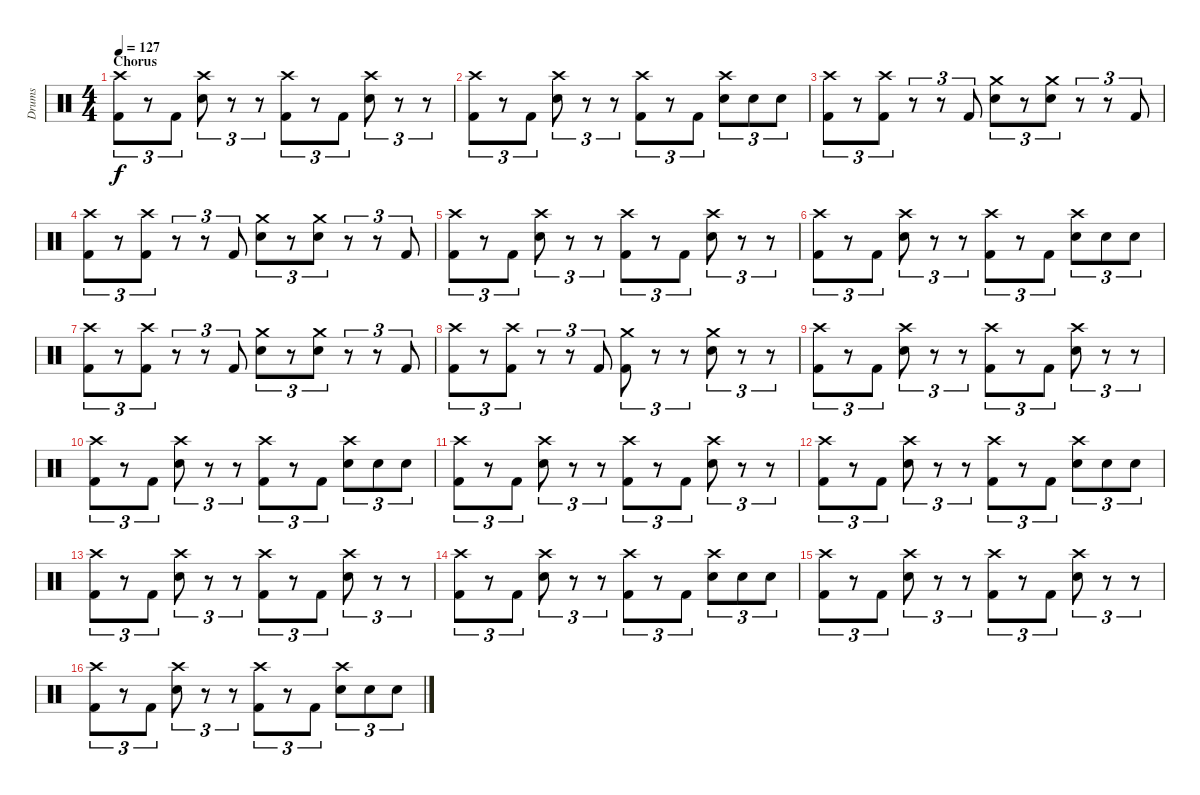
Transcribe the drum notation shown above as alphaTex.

\track ("Drums" "Drums") {instrument percussion}
\staff {score}
\articulation defaults
\ts (4 4)
\section ("" "Chorus")
\tempo 127
\clef neutral
\ks c
("Crash high (hit)" "Kick (hit) 2").8{tu (3 2) dy f volume 13} r.8{tu (3 2)} "Kick (hit) 2".8{tu (3 2)} ("Crash high (hit)" "Electric Snare (hit)").8{tu (3 2)} r.8{tu (3 2)} r.8{tu (3 2)} ("Crash high (hit)" "Kick (hit) 2").8{tu (3 2)} r.8{tu (3 2)} "Kick (hit) 2".8{tu (3 2)} ("Crash high (hit)" "Electric Snare (hit)").8{tu (3 2)} r.8{tu (3 2)} r.8{tu (3 2)} |
("Crash high (hit)" "Kick (hit) 2").8{tu (3 2)} r.8{tu (3 2)} "Kick (hit) 2".8{tu (3 2)} ("Crash high (hit)" "Electric Snare (hit)").8{tu (3 2)} r.8{tu (3 2)} r.8{tu (3 2)} ("Crash high (hit)" "Kick (hit) 2").8{tu (3 2)} r.8{tu (3 2)} "Kick (hit) 2".8{tu (3 2)} ("Crash high (hit)" "Electric Snare (hit)").8{tu (3 2)} "Electric Snare (hit)".8{tu (3 2)} "Electric Snare (hit)".8{tu (3 2)} |
("Crash high (hit)" "Kick (hit) 2").8{tu (3 2)} r.8{tu (3 2)} ("Crash high (hit)" "Kick (hit) 2").8{tu (3 2)} r.8{tu (3 2)} r.8{tu (3 2)} "Kick (hit) 2".8{tu (3 2)} ("Crash medium (hit)" "Electric Snare (hit)").8{tu (3 2)} r.8{tu (3 2)} ("Crash medium (hit)" "Electric Snare (hit)").8{tu (3 2)} r.8{tu (3 2)} r.8{tu (3 2)} "Kick (hit) 2".8{tu (3 2)} |
("Crash high (hit)" "Kick (hit) 2").8{tu (3 2)} r.8{tu (3 2)} ("Crash high (hit)" "Kick (hit) 2").8{tu (3 2)} r.8{tu (3 2)} r.8{tu (3 2)} "Kick (hit) 2".8{tu (3 2)} ("Crash medium (hit)" "Electric Snare (hit)").8{tu (3 2)} r.8{tu (3 2)} ("Crash medium (hit)" "Electric Snare (hit)").8{tu (3 2)} r.8{tu (3 2)} r.8{tu (3 2)} "Kick (hit) 2".8{tu (3 2)} |
("Crash high (hit)" "Kick (hit) 2").8{tu (3 2)} r.8{tu (3 2)} "Kick (hit) 2".8{tu (3 2)} ("Crash high (hit)" "Electric Snare (hit)").8{tu (3 2)} r.8{tu (3 2)} r.8{tu (3 2)} ("Crash high (hit)" "Kick (hit) 2").8{tu (3 2)} r.8{tu (3 2)} "Kick (hit) 2".8{tu (3 2)} ("Crash high (hit)" "Electric Snare (hit)").8{tu (3 2)} r.8{tu (3 2)} r.8{tu (3 2)} |
("Crash high (hit)" "Kick (hit) 2").8{tu (3 2)} r.8{tu (3 2)} "Kick (hit) 2".8{tu (3 2)} ("Crash high (hit)" "Electric Snare (hit)").8{tu (3 2)} r.8{tu (3 2)} r.8{tu (3 2)} ("Crash high (hit)" "Kick (hit) 2").8{tu (3 2)} r.8{tu (3 2)} "Kick (hit) 2".8{tu (3 2)} ("Crash high (hit)" "Electric Snare (hit)").8{tu (3 2)} "Electric Snare (hit)".8{tu (3 2)} "Electric Snare (hit)".8{tu (3 2)} |
("Crash high (hit)" "Kick (hit) 2").8{tu (3 2)} r.8{tu (3 2)} ("Crash high (hit)" "Kick (hit) 2").8{tu (3 2)} r.8{tu (3 2)} r.8{tu (3 2)} "Kick (hit) 2".8{tu (3 2)} ("Crash medium (hit)" "Electric Snare (hit)").8{tu (3 2)} r.8{tu (3 2)} ("Crash medium (hit)" "Electric Snare (hit)").8{tu (3 2)} r.8{tu (3 2)} r.8{tu (3 2)} "Kick (hit) 2".8{tu (3 2)} |
("Crash high (hit)" "Kick (hit) 2").8{tu (3 2)} r.8{tu (3 2)} ("Crash high (hit)" "Kick (hit) 2").8{tu (3 2)} r.8{tu (3 2)} r.8{tu (3 2)} "Kick (hit) 2".8{tu (3 2)} ("Crash medium (hit)" "Kick (hit) 2").8{tu (3 2)} r.8{tu (3 2)} r.8{tu (3 2)} ("Crash medium (hit)" "Electric Snare (hit)").8{tu (3 2)} r.8{tu (3 2)} r.8{tu (3 2)} |
("Crash high (hit)" "Kick (hit) 2").8{tu (3 2)} r.8{tu (3 2)} "Kick (hit) 2".8{tu (3 2)} ("Crash high (hit)" "Electric Snare (hit)").8{tu (3 2)} r.8{tu (3 2)} r.8{tu (3 2)} ("Crash high (hit)" "Kick (hit) 2").8{tu (3 2)} r.8{tu (3 2)} "Kick (hit) 2".8{tu (3 2)} ("Crash high (hit)" "Electric Snare (hit)").8{tu (3 2)} r.8{tu (3 2)} r.8{tu (3 2)} |
("Crash high (hit)" "Kick (hit) 2").8{tu (3 2)} r.8{tu (3 2)} "Kick (hit) 2".8{tu (3 2)} ("Crash high (hit)" "Electric Snare (hit)").8{tu (3 2)} r.8{tu (3 2)} r.8{tu (3 2)} ("Crash high (hit)" "Kick (hit) 2").8{tu (3 2)} r.8{tu (3 2)} "Kick (hit) 2".8{tu (3 2)} ("Crash high (hit)" "Electric Snare (hit)").8{tu (3 2)} "Electric Snare (hit)".8{tu (3 2)} "Electric Snare (hit)".8{tu (3 2)} |
("Crash high (hit)" "Kick (hit) 2").8{tu (3 2)} r.8{tu (3 2)} "Kick (hit) 2".8{tu (3 2)} ("Crash high (hit)" "Electric Snare (hit)").8{tu (3 2)} r.8{tu (3 2)} r.8{tu (3 2)} ("Crash high (hit)" "Kick (hit) 2").8{tu (3 2)} r.8{tu (3 2)} "Kick (hit) 2".8{tu (3 2)} ("Crash high (hit)" "Electric Snare (hit)").8{tu (3 2)} r.8{tu (3 2)} r.8{tu (3 2)} |
("Crash high (hit)" "Kick (hit) 2").8{tu (3 2)} r.8{tu (3 2)} "Kick (hit) 2".8{tu (3 2)} ("Crash high (hit)" "Electric Snare (hit)").8{tu (3 2)} r.8{tu (3 2)} r.8{tu (3 2)} ("Crash high (hit)" "Kick (hit) 2").8{tu (3 2)} r.8{tu (3 2)} "Kick (hit) 2".8{tu (3 2)} ("Crash high (hit)" "Electric Snare (hit)").8{tu (3 2)} "Electric Snare (hit)".8{tu (3 2)} "Electric Snare (hit)".8{tu (3 2)} |
("Crash high (hit)" "Kick (hit) 2").8{tu (3 2)} r.8{tu (3 2)} "Kick (hit) 2".8{tu (3 2)} ("Crash high (hit)" "Electric Snare (hit)").8{tu (3 2)} r.8{tu (3 2)} r.8{tu (3 2)} ("Crash high (hit)" "Kick (hit) 2").8{tu (3 2)} r.8{tu (3 2)} "Kick (hit) 2".8{tu (3 2)} ("Crash high (hit)" "Electric Snare (hit)").8{tu (3 2)} r.8{tu (3 2)} r.8{tu (3 2)} |
("Crash high (hit)" "Kick (hit) 2").8{tu (3 2)} r.8{tu (3 2)} "Kick (hit) 2".8{tu (3 2)} ("Crash high (hit)" "Electric Snare (hit)").8{tu (3 2)} r.8{tu (3 2)} r.8{tu (3 2)} ("Crash high (hit)" "Kick (hit) 2").8{tu (3 2)} r.8{tu (3 2)} "Kick (hit) 2".8{tu (3 2)} ("Crash high (hit)" "Electric Snare (hit)").8{tu (3 2)} "Electric Snare (hit)".8{tu (3 2)} "Electric Snare (hit)".8{tu (3 2)} |
("Crash high (hit)" "Kick (hit) 2").8{tu (3 2)} r.8{tu (3 2)} "Kick (hit) 2".8{tu (3 2)} ("Crash high (hit)" "Electric Snare (hit)").8{tu (3 2)} r.8{tu (3 2)} r.8{tu (3 2)} ("Crash high (hit)" "Kick (hit) 2").8{tu (3 2)} r.8{tu (3 2)} "Kick (hit) 2".8{tu (3 2)} ("Crash high (hit)" "Electric Snare (hit)").8{tu (3 2)} r.8{tu (3 2)} r.8{tu (3 2)} |
("Crash high (hit)" "Kick (hit) 2").8{tu (3 2)} r.8{tu (3 2)} "Kick (hit) 2".8{tu (3 2)} ("Crash high (hit)" "Electric Snare (hit)").8{tu (3 2)} r.8{tu (3 2)} r.8{tu (3 2)} ("Crash high (hit)" "Kick (hit) 2").8{tu (3 2)} r.8{tu (3 2)} "Kick (hit) 2".8{tu (3 2)} ("Crash high (hit)" "Electric Snare (hit)").8{tu (3 2)} "Electric Snare (hit)".8{tu (3 2)} "Electric Snare (hit)".8{tu (3 2)}
